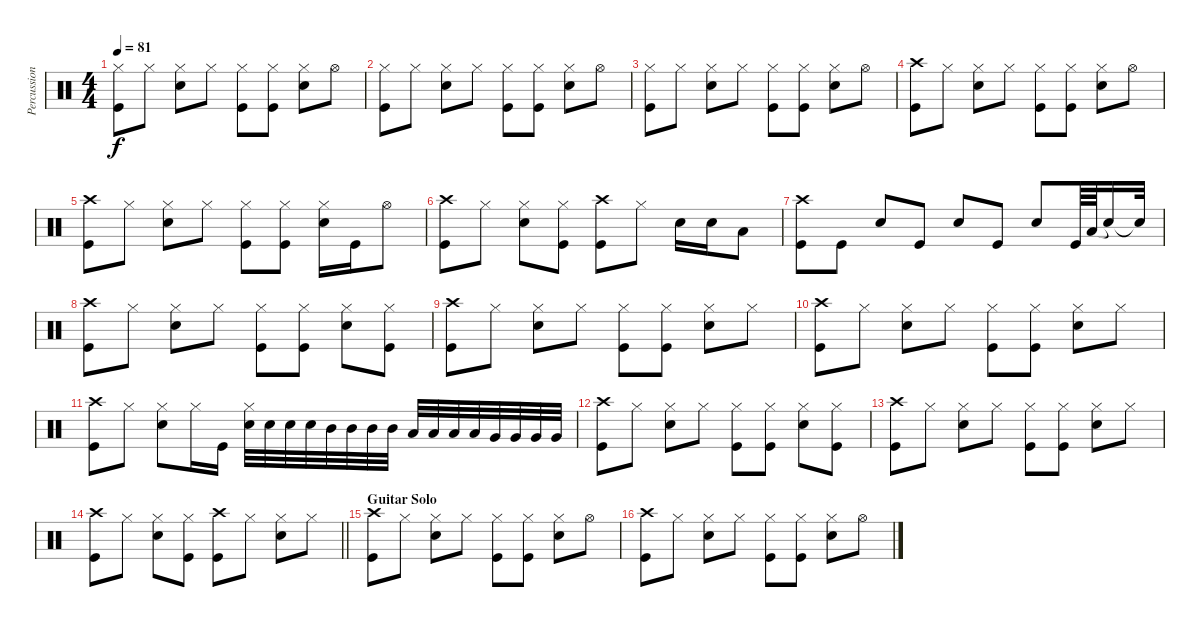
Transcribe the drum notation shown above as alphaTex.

\track ("Percussion" "Percussion") {instrument percussion}
\staff {score}
\articulation defaults
\ts (4 4)
\tempo 81
\clef neutral
\ks c
("Hi-Hat (closed)" "Kick (hit)").8{dy f} "Hi-Hat (closed)".8 ("Hi-Hat (closed)" "Snare (hit) 2").8 "Hi-Hat (closed)".8 ("Hi-Hat (closed)" "Kick (hit)").8 ("Hi-Hat (closed)" "Kick (hit)").8 ("Hi-Hat (closed)" "Snare (hit) 2").8 "Hi-Hat (open)".8 |
("Hi-Hat (closed)" "Kick (hit)").8 "Hi-Hat (closed)".8 ("Hi-Hat (closed)" "Snare (hit) 2").8 "Hi-Hat (closed)".8 ("Hi-Hat (closed)" "Kick (hit)").8 ("Hi-Hat (closed)" "Kick (hit)").8 ("Hi-Hat (closed)" "Snare (hit) 2").8 "Hi-Hat (open)".8 |
("Hi-Hat (closed)" "Kick (hit)").8 "Hi-Hat (closed)".8 ("Hi-Hat (closed)" "Snare (hit) 2").8 "Hi-Hat (closed)".8 ("Hi-Hat (closed)" "Kick (hit)").8 ("Hi-Hat (closed)" "Kick (hit)").8 ("Hi-Hat (closed)" "Snare (hit) 2").8 "Hi-Hat (open)".8 |
("Crash high (hit)" "Kick (hit)").8 "Hi-Hat (closed)".8 ("Hi-Hat (closed)" "Snare (hit) 2").8 "Hi-Hat (closed)".8 ("Hi-Hat (closed)" "Kick (hit)").8 ("Hi-Hat (closed)" "Kick (hit)").8 ("Hi-Hat (closed)" "Snare (hit) 2").8 "Hi-Hat (open)".8 |
("Crash high (hit)" "Kick (hit)").8 "Hi-Hat (closed)".8 ("Hi-Hat (closed)" "Snare (hit) 2").8 "Hi-Hat (closed)".8 ("Hi-Hat (closed)" "Kick (hit)").8 ("Hi-Hat (closed)" "Kick (hit)").8 ("Hi-Hat (closed)" "Snare (hit) 2").16 "Kick (hit)".16 "Hi-Hat (open)".8 |
("Crash high (hit)" "Kick (hit)").8 "Hi-Hat (closed)".8 ("Hi-Hat (closed)" "Snare (hit) 2").8 ("Hi-Hat (closed)" "Kick (hit)").8 ("Crash high (hit)" "Kick (hit)").8 "Hi-Hat (closed)".8 "Snare (hit) 2".16 "Snare (hit) 2".16 "Low Tom (hit)".8 |
("Crash high (hit)" "Kick (hit)").8 "Kick (hit)".8 "Snare (hit) 2".8 "Kick (hit)".8 "Snare (hit) 2".8 "Kick (hit)".8 "Snare (hit) 2".8 "Kick (hit)".64 "Low Floor Tom (hit)".64 "Snare (hit)"{t}.16 "Snare (hit)"{t}.32 |
("Crash high (hit)" "Kick (hit)").8 "Hi-Hat (closed)".8 ("Hi-Hat (closed)" "Snare (hit) 2").8 "Hi-Hat (closed)".8 ("Hi-Hat (closed)" "Kick (hit)").8 ("Hi-Hat (closed)" "Kick (hit)").8 ("Hi-Hat (closed)" "Snare (hit) 2").8 ("Hi-Hat (closed)" "Kick (hit)").8 |
("Crash high (hit)" "Kick (hit)").8 "Hi-Hat (closed)".8 ("Hi-Hat (closed)" "Snare (hit) 2").8 "Hi-Hat (closed)".8 ("Hi-Hat (closed)" "Kick (hit)").8 ("Hi-Hat (closed)" "Kick (hit)").8 ("Hi-Hat (closed)" "Snare (hit) 2").8 "Hi-Hat (closed)".8 |
("Crash high (hit)" "Kick (hit)").8 "Hi-Hat (closed)".8 ("Hi-Hat (closed)" "Snare (hit) 2").8 "Hi-Hat (closed)".8 ("Hi-Hat (closed)" "Kick (hit)").8 ("Hi-Hat (closed)" "Kick (hit)").8 ("Hi-Hat (closed)" "Snare (hit) 2").8 "Hi-Hat (closed)".8 |
("Crash high (hit)" "Kick (hit)").8 "Hi-Hat (closed)".8 ("Hi-Hat (closed)" "Snare (hit) 2").8 "Hi-Hat (closed)".16 "Kick (hit)".16 ("Hi-Hat (closed)" "Snare (hit) 2").32 "Snare (hit) 2".32 "Snare (hit) 2".32 "Snare (hit) 2".32 "Mid Tom (hit)".32 "Mid Tom (hit)".32 "Mid Tom (hit)".32 "Mid Tom (hit)".32 "Low Tom (hit)".32 "Low Tom (hit)".32 "Low Tom (hit)".32 "Low Tom (hit)".32 "Very Low Tom (hit)".32 "Very Low Tom (hit)".32 "Very Low Tom (hit)".32 "Very Low Tom (hit)".32 |
("Crash high (hit)" "Kick (hit)").8 "Hi-Hat (closed)".8 ("Hi-Hat (closed)" "Snare (hit) 2").8 "Hi-Hat (closed)".8 ("Hi-Hat (closed)" "Kick (hit)").8 ("Hi-Hat (closed)" "Kick (hit)").8 ("Hi-Hat (closed)" "Snare (hit) 2").8 ("Hi-Hat (closed)" "Kick (hit)").8 |
("Crash high (hit)" "Kick (hit)").8 "Hi-Hat (closed)".8 ("Hi-Hat (closed)" "Snare (hit) 2").8 "Hi-Hat (closed)".8 ("Hi-Hat (closed)" "Kick (hit)").8 ("Hi-Hat (closed)" "Kick (hit)").8 ("Hi-Hat (closed)" "Snare (hit) 2").8 "Hi-Hat (closed)".8 |
\barLineRight lightlight
("Crash high (hit)" "Kick (hit)").8 "Hi-Hat (closed)".8 ("Hi-Hat (closed)" "Snare (hit) 2").8 ("Hi-Hat (closed)" "Kick (hit)").8 ("Crash high (hit)" "Kick (hit)").8 "Hi-Hat (closed)".8 ("Hi-Hat (closed)" "Snare (hit) 2").8 "Hi-Hat (closed)".8 |
\section ("" "Guitar Solo")
("Crash high (hit)" "Kick (hit)").8 "Hi-Hat (closed)".8 ("Hi-Hat (closed)" "Snare (hit) 2").8 "Hi-Hat (closed)".8 ("Hi-Hat (closed)" "Kick (hit)").8 ("Hi-Hat (closed)" "Kick (hit)").8 ("Hi-Hat (closed)" "Snare (hit) 2").8 "Hi-Hat (open)".8 |
("Crash high (hit)" "Kick (hit)").8 "Hi-Hat (closed)".8 ("Hi-Hat (closed)" "Snare (hit) 2").8 "Hi-Hat (closed)".8 ("Hi-Hat (closed)" "Kick (hit)").8 ("Hi-Hat (closed)" "Kick (hit)").8 ("Hi-Hat (closed)" "Snare (hit) 2").8 "Hi-Hat (open)".8
